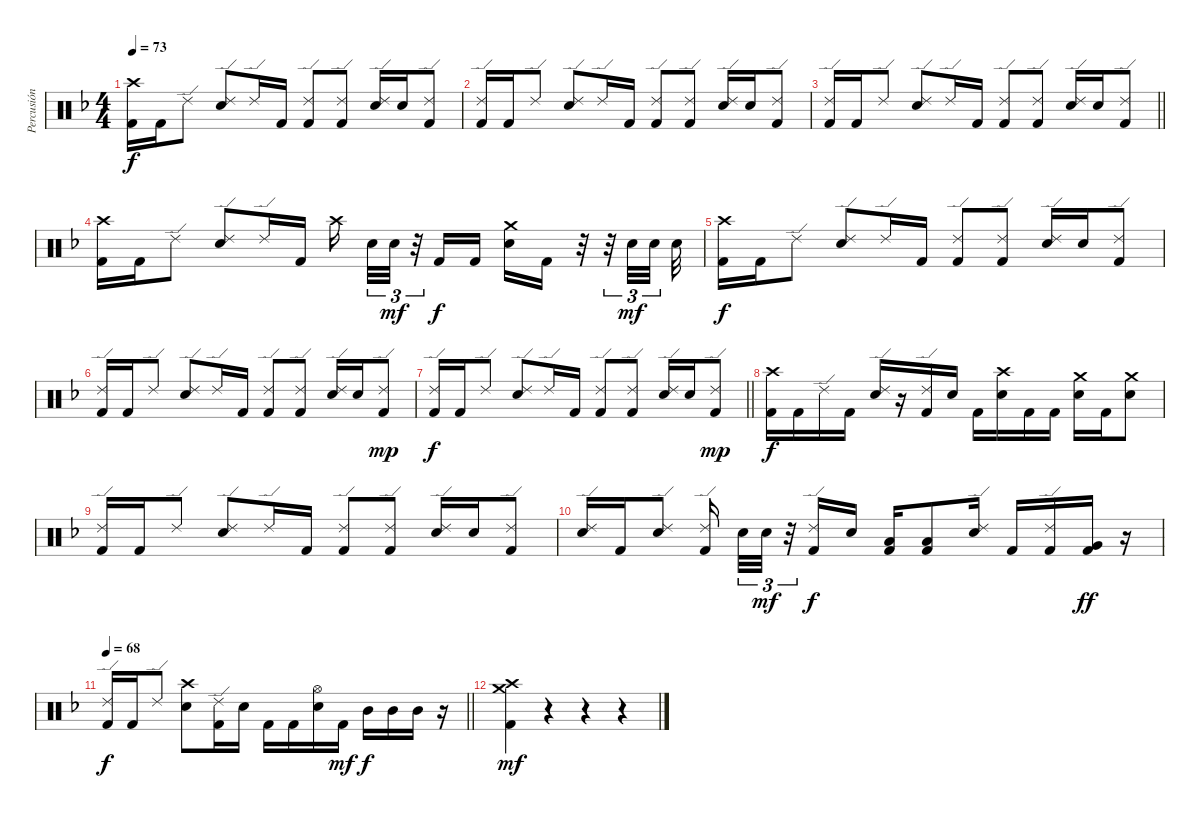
\track ("Percusión" "Percusión") {instrument percussion}
\staff {score}
\articulation defaults
\ts (4 4)
\tempo 73
\clef neutral
\ks f
("Crash high (hit)" "Kick (hit) 2").16{dy f} "Kick (hit) 2".16 "Ride (edge) 2".8 ("Ride (edge) 2" "Snare (hit) 2").8 "Ride (edge) 2".16 "Kick (hit) 2".16 ("Ride (edge) 2" "Kick (hit) 2").8 ("Ride (edge) 2" "Kick (hit) 2").8 ("Ride (edge) 2" "Snare (hit) 2").16 "Snare (hit) 2".16 ("Ride (edge) 2" "Kick (hit) 2").8 |
("Ride (edge) 2" "Kick (hit) 2").16 "Kick (hit) 2".16 "Ride (edge) 2".8 ("Ride (edge) 2" "Snare (hit) 2").8 "Ride (edge) 2".16 "Kick (hit) 2".16 ("Ride (edge) 2" "Kick (hit) 2").8 ("Ride (edge) 2" "Kick (hit) 2").8 ("Ride (edge) 2" "Snare (hit) 2").16 "Snare (hit) 2".16 ("Ride (edge) 2" "Kick (hit) 2").8 |
\barLineRight lightlight
("Ride (edge) 2" "Kick (hit) 2").16 "Kick (hit) 2".16 "Ride (edge) 2".8 ("Ride (edge) 2" "Snare (hit) 2").8 "Ride (edge) 2".16 "Kick (hit) 2".16 ("Ride (edge) 2" "Kick (hit) 2").8 ("Ride (edge) 2" "Kick (hit) 2").8 ("Ride (edge) 2" "Snare (hit) 2").16 "Snare (hit) 2".16 ("Ride (edge) 2" "Kick (hit) 2").8 |
("Crash high (hit)" "Kick (hit) 2").16 "Kick (hit) 2".16 "Ride (edge) 2".8 ("Ride (edge) 2" "Snare (hit) 2").8 "Ride (edge) 2".16 "Kick (hit) 2".16 "Crash high (hit)".16{beam splitsecondary} "Snare (hit) 2".32{tu (3 2)} "Snare (hit) 2".32{tu (3 2) dy mf} r.32{tu (3 2)} "Kick (hit) 2".16{dy f} "Kick (hit) 2".16 ("Crash medium (hit)" "Snare (hit) 2").16 "Kick (hit) 2".16 r.32 r.32{tu (3 2)} "Snare (hit) 2".32{tu (3 2) dy mf} "Snare (hit) 2".32{tu (3 2) beam splitsecondary} "Snare (hit) 2".32 |
("Crash high (hit)" "Kick (hit) 2").16{dy f} "Kick (hit) 2".16 "Ride (edge) 2".8 ("Ride (edge) 2" "Snare (hit) 2").8 "Ride (edge) 2".16 "Kick (hit) 2".16 ("Ride (edge) 2" "Kick (hit) 2").8 ("Ride (edge) 2" "Kick (hit) 2").8 ("Ride (edge) 2" "Snare (hit) 2").16 "Snare (hit) 2".16 ("Ride (edge) 2" "Kick (hit) 2").8 |
("Ride (edge) 2" "Kick (hit) 2").16 "Kick (hit) 2".16 "Ride (edge) 2".8 ("Ride (edge) 2" "Snare (hit) 2").8 "Ride (edge) 2".16 "Kick (hit) 2".16 ("Ride (edge) 2" "Kick (hit) 2").8 ("Ride (edge) 2" "Kick (hit) 2").8 ("Ride (edge) 2" "Snare (hit) 2").16 "Snare (hit) 2".16 ("Ride (edge) 2" "Kick (hit) 2").8{dy mp} |
\barLineRight lightlight
("Ride (edge) 2" "Kick (hit) 2").16{dy f} "Kick (hit) 2".16 "Ride (edge) 2".8 ("Ride (edge) 2" "Snare (hit) 2").8 "Ride (edge) 2".16 "Kick (hit) 2".16 ("Ride (edge) 2" "Kick (hit) 2").8 ("Ride (edge) 2" "Kick (hit) 2").8 ("Ride (edge) 2" "Snare (hit) 2").16 "Snare (hit) 2".16 ("Ride (edge) 2" "Kick (hit) 2").8{dy mp} |
("Crash high (hit)" "Kick (hit) 2").16{dy f} "Kick (hit) 2".16 "Ride (edge) 2".16 "Kick (hit) 2".16 ("Ride (edge) 2" "Snare (hit) 2").16 r.16 ("Ride (edge) 2" "Kick (hit) 2").16 "Snare (hit) 2".16 "Kick (hit) 2".16 ("Crash high (hit)" "Snare (hit) 2").16 "Kick (hit) 2".16 "Kick (hit) 2".16 ("Crash medium (hit)" "Snare (hit) 2").16 "Kick (hit) 2".16 ("Crash medium (hit)" "Snare (hit) 2").8 |
("Ride (edge) 2" "Kick (hit) 2").16 "Kick (hit) 2".16 "Ride (edge) 2".8 ("Ride (edge) 2" "Snare (hit) 2").8 "Ride (edge) 2".16 "Kick (hit) 2".16 ("Ride (edge) 2" "Kick (hit) 2").8 ("Ride (edge) 2" "Kick (hit) 2").8 ("Ride (edge) 2" "Snare (hit) 2").16 "Snare (hit) 2".16 ("Ride (edge) 2" "Kick (hit) 2").8 |
("Ride (edge) 2" "Snare (hit) 2").16 "Kick (hit) 2".16 ("Ride (edge) 2" "Snare (hit) 2").8 ("Ride (edge) 2" "Kick (hit) 2").16{beam splitsecondary} "Snare (hit) 2".32{tu (3 2)} "Snare (hit) 2".32{tu (3 2) dy mf} r.32{tu (3 2)} ("Ride (edge) 2" "Kick (hit) 2").16{dy f} "Snare (hit) 2".16 ("Low Tom (hit)" "Kick (hit) 2").16 ("Low Tom (hit)" "Kick (hit) 2").8 ("Ride (edge) 2" "Snare (hit) 2").16 "Kick (hit) 2".16 ("Ride (edge) 2" "Kick (hit) 2").16 ("Very Low Tom (hit)" "Kick (hit) 2").16{dy ff} r.16 |
\tempo 68
\barLineRight lightlight
("Ride (edge) 2" "Kick (hit) 2").16{dy f} "Kick (hit) 2".16 "Ride (edge) 2".8 ("Crash high (hit)" "Snare (hit) 2").8 ("Ride (edge) 2" "Kick (hit) 2").16 "Snare (hit) 2".16 "Kick (hit) 2".16 "Kick (hit) 2".16 ("Hi-Hat (open)" "Snare (hit) 2").16 "Kick (hit) 2".16{dy mf} "Mid Tom (hit)".16{dy f} "Mid Tom (hit)".16 "Mid Tom (hit)".16 r.16 |
("Crash medium (hit)" "Crash high (hit)" "Kick (hit) 2").4{dy mf} r.4 r.4 r.4
